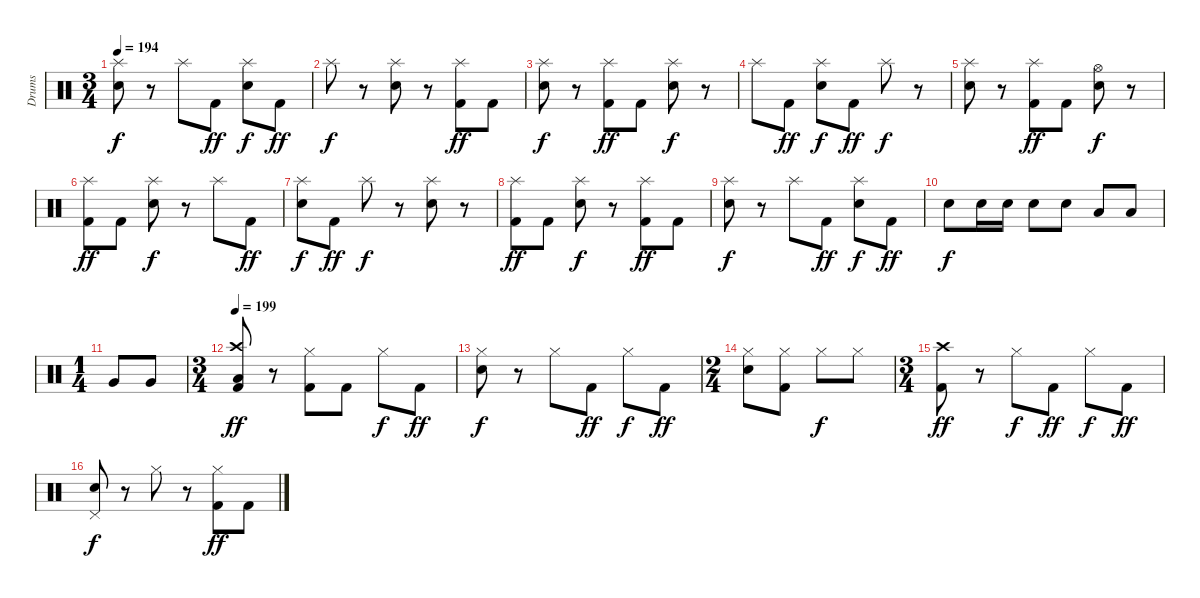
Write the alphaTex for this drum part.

\track ("Drums" "Drums") {instrument percussion}
\staff {score}
\articulation defaults
\ts (3 4)
\tempo 194
\clef neutral
\ks c
("Splash (hit)" "Electric Snare (hit)").8{dy f} r.8 "Splash (hit)".8 "Kick (hit) 2".8{dy ff} ("Splash (hit)" "Electric Snare (hit)").8{dy f} "Kick (hit) 2".8{dy ff} |
"Splash (hit)".8{dy f} r.8 ("Splash (hit)" "Electric Snare (hit)").8 r.8 ("Splash (hit)" "Kick (hit) 2").8{dy ff} "Kick (hit) 2".8 |
("Splash (hit)" "Electric Snare (hit)").8{dy f} r.8 ("Splash (hit)" "Kick (hit) 2").8{dy ff} "Kick (hit) 2".8 ("Splash (hit)" "Electric Snare (hit)").8{dy f} r.8 |
"Splash (hit)".8 "Kick (hit) 2".8{dy ff} ("Splash (hit)" "Electric Snare (hit)").8{dy f} "Kick (hit) 2".8{dy ff} "Splash (hit)".8{dy f} r.8 |
("Splash (hit)" "Electric Snare (hit)").8 r.8 ("Splash (hit)" "Kick (hit) 2").8{dy ff} "Kick (hit) 2".8 ("Hi-Hat (open)" "Electric Snare (hit)").8{dy f} r.8 |
("Splash (hit)" "Kick (hit) 2").8{dy ff} "Kick (hit) 2".8 ("Splash (hit)" "Electric Snare (hit)").8{dy f} r.8 "Splash (hit)".8 "Kick (hit) 2".8{dy ff} |
("Splash (hit)" "Electric Snare (hit)").8{dy f} "Kick (hit) 2".8{dy ff} "Splash (hit)".8{dy f} r.8 ("Splash (hit)" "Electric Snare (hit)").8 r.8 |
("Splash (hit)" "Kick (hit) 2").8{dy ff} "Kick (hit) 2".8 ("Splash (hit)" "Electric Snare (hit)").8{dy f} r.8 ("Splash (hit)" "Kick (hit) 2").8{dy ff} "Kick (hit) 2".8 |
("Splash (hit)" "Electric Snare (hit)").8{dy f} r.8 "Splash (hit)".8 "Kick (hit) 2".8{dy ff} ("Splash (hit)" "Electric Snare (hit)").8{dy f} "Kick (hit) 2".8{dy ff} |
"Electric Snare (hit)".8{dy f} "Electric Snare (hit)".16 "Electric Snare (hit)".16 "Electric Snare (hit)".8 "Electric Snare (hit)".8 "Low Tom (hit)".8 "Low Tom (hit)".8 |
\ts (1 4)
"Very Low Tom (hit)".8 "Very Low Tom (hit)".8 |
\ts (3 4)
\tempo 199
("Crash high (hit)" "Low Floor Tom (hit)" "Kick (hit) 2").8{dy ff} r.8 ("Hi-Hat (closed)" "Kick (hit) 2").8 "Kick (hit) 2".8 "Hi-Hat (closed)".8{dy f} "Kick (hit) 2".8{dy ff} |
("Hi-Hat (closed)" "Electric Snare (hit)").8{dy f} r.8 "Hi-Hat (closed)".8 "Kick (hit) 2".8{dy ff} "Hi-Hat (closed)".8{dy f} "Kick (hit) 2".8{dy ff} |
\ts (2 4)
("Hi-Hat (closed)" "Electric Snare (hit)").8 ("Hi-Hat (closed)" "Kick (hit) 2").8 "Hi-Hat (closed)".8{dy f} "Hi-Hat (closed)".8 |
\ts (3 4)
("Crash high (hit)" "Kick (hit) 2").8{dy ff} r.8 "Hi-Hat (closed)".8{dy f} "Kick (hit) 2".8{dy ff} "Hi-Hat (closed)".8{dy f} "Kick (hit) 2".8{dy ff} |
("Pedal Hi-Hat (hit)" "Electric Snare (hit)").8{dy f} r.8 "Hi-Hat (closed)".8 r.8 ("Hi-Hat (closed)" "Kick (hit) 2").8{dy ff} "Kick (hit) 2".8
